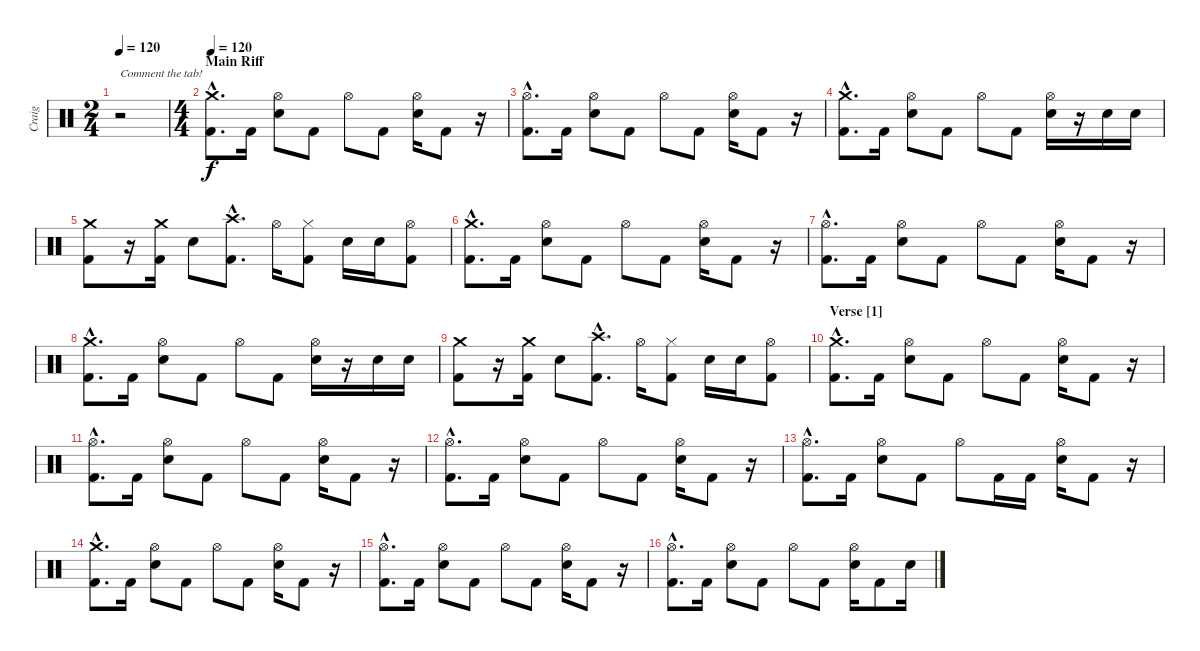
\track ("Craig" "Craig") {instrument percussion}
\staff {score}
\articulation defaults
\ts (2 4)
\section ("" "")
\tempo 120
\clef neutral
\ks c
r.2{txt "Comment the tab!" dy f} |
\ts (4 4)
\section ("" "Main Riff")
\tempo 120
("Crash medium (hit)"{hac} "Kick (hit) 2"{hac}).8{d} "Kick (hit) 2".16 ("Hi-Hat (open)" "Electric Snare (hit)").8 "Kick (hit) 2".8 "Hi-Hat (open)".8 "Kick (hit) 2".8 ("Hi-Hat (open)" "Electric Snare (hit)").16 "Kick (hit) 2".8 r.16 |
("Hi-Hat (open)"{hac} "Kick (hit) 2"{hac}).8{d} "Kick (hit) 2".16 ("Hi-Hat (open)" "Electric Snare (hit)").8 "Kick (hit) 2".8 "Hi-Hat (open)".8 "Kick (hit) 2".8 ("Hi-Hat (open)" "Electric Snare (hit)").16 "Kick (hit) 2".8 r.16 |
("Crash medium (hit)"{hac} "Kick (hit) 2"{hac}).8{d} "Kick (hit) 2".16 ("Hi-Hat (open)" "Electric Snare (hit)").8 "Kick (hit) 2".8 "Hi-Hat (open)".8 "Kick (hit) 2".8 ("Hi-Hat (open)" "Electric Snare (hit)").16 r.16 "Electric Snare (hit)".16 "Electric Snare (hit)".16 |
("Crash medium (hit)" "Kick (hit) 2").8 r.16 ("Crash medium (hit)" "Kick (hit) 2").16 "Electric Snare (hit)".8 ("Crash high (hit)"{hac} "Kick (hit) 2"{hac}).8{d} "Hi-Hat (open)".16 ("Hi-Hat (closed)" "Kick (hit) 2").8 "Electric Snare (hit)".16 "Electric Snare (hit)".16 ("Hi-Hat (open)" "Kick (hit) 2").8 |
("Crash medium (hit)"{hac} "Kick (hit) 2"{hac}).8{d} "Kick (hit) 2".16 ("Hi-Hat (open)" "Electric Snare (hit)").8 "Kick (hit) 2".8 "Hi-Hat (open)".8 "Kick (hit) 2".8 ("Hi-Hat (open)" "Electric Snare (hit)").16 "Kick (hit) 2".8 r.16 |
("Hi-Hat (open)"{hac} "Kick (hit) 2"{hac}).8{d} "Kick (hit) 2".16 ("Hi-Hat (open)" "Electric Snare (hit)").8 "Kick (hit) 2".8 "Hi-Hat (open)".8 "Kick (hit) 2".8 ("Hi-Hat (open)" "Electric Snare (hit)").16 "Kick (hit) 2".8 r.16 |
("Crash medium (hit)"{hac} "Kick (hit) 2"{hac}).8{d} "Kick (hit) 2".16 ("Hi-Hat (open)" "Electric Snare (hit)").8 "Kick (hit) 2".8 "Hi-Hat (open)".8 "Kick (hit) 2".8 ("Hi-Hat (open)" "Electric Snare (hit)").16 r.16 "Electric Snare (hit)".16 "Electric Snare (hit)".16 |
("Crash medium (hit)" "Kick (hit) 2").8 r.16 ("Crash medium (hit)" "Kick (hit) 2").16 "Electric Snare (hit)".8 ("Crash high (hit)"{hac} "Kick (hit) 2"{hac}).8{d} "Hi-Hat (open)".16 ("Hi-Hat (closed)" "Kick (hit) 2").8 "Electric Snare (hit)".16 "Electric Snare (hit)".16 ("Hi-Hat (open)" "Kick (hit) 2").8 |
\section ("" "Verse [1]")
("Crash medium (hit)"{hac} "Kick (hit) 2"{hac}).8{d} "Kick (hit) 2".16 ("Hi-Hat (open)" "Electric Snare (hit)").8 "Kick (hit) 2".8 "Hi-Hat (open)".8 "Kick (hit) 2".8 ("Hi-Hat (open)" "Electric Snare (hit)").16 "Kick (hit) 2".8 r.16 |
("Hi-Hat (open)"{hac} "Kick (hit) 2"{hac}).8{d} "Kick (hit) 2".16 ("Hi-Hat (open)" "Electric Snare (hit)").8 "Kick (hit) 2".8 "Hi-Hat (open)".8 "Kick (hit) 2".8 ("Hi-Hat (open)" "Electric Snare (hit)").16 "Kick (hit) 2".8 r.16 |
("Hi-Hat (open)"{hac} "Kick (hit) 2"{hac}).8{d} "Kick (hit) 2".16 ("Hi-Hat (open)" "Electric Snare (hit)").8 "Kick (hit) 2".8 "Hi-Hat (open)".8 "Kick (hit) 2".8 ("Hi-Hat (open)" "Electric Snare (hit)").16 "Kick (hit) 2".8 r.16 |
("Hi-Hat (open)"{hac} "Kick (hit) 2"{hac}).8{d} "Kick (hit) 2".16 ("Hi-Hat (open)" "Electric Snare (hit)").8 "Kick (hit) 2".8 "Hi-Hat (open)".8 "Kick (hit) 2".16 "Kick (hit) 2".16 ("Hi-Hat (open)" "Electric Snare (hit)").16 "Kick (hit) 2".8 r.16 |
("Crash medium (hit)"{hac} "Kick (hit) 2"{hac}).8{d} "Kick (hit) 2".16 ("Hi-Hat (open)" "Electric Snare (hit)").8 "Kick (hit) 2".8 "Hi-Hat (open)".8 "Kick (hit) 2".8 ("Hi-Hat (open)" "Electric Snare (hit)").16 "Kick (hit) 2".8 r.16 |
("Hi-Hat (open)"{hac} "Kick (hit) 2"{hac}).8{d} "Kick (hit) 2".16 ("Hi-Hat (open)" "Electric Snare (hit)").8 "Kick (hit) 2".8 "Hi-Hat (open)".8 "Kick (hit) 2".8 ("Hi-Hat (open)" "Electric Snare (hit)").16 "Kick (hit) 2".8 r.16 |
("Hi-Hat (open)"{hac} "Kick (hit) 2"{hac}).8{d} "Kick (hit) 2".16 ("Hi-Hat (open)" "Electric Snare (hit)").8 "Kick (hit) 2".8 "Hi-Hat (open)".8 "Kick (hit) 2".8 ("Hi-Hat (open)" "Electric Snare (hit)").16 "Kick (hit) 2".8 "Electric Snare (hit)".16
